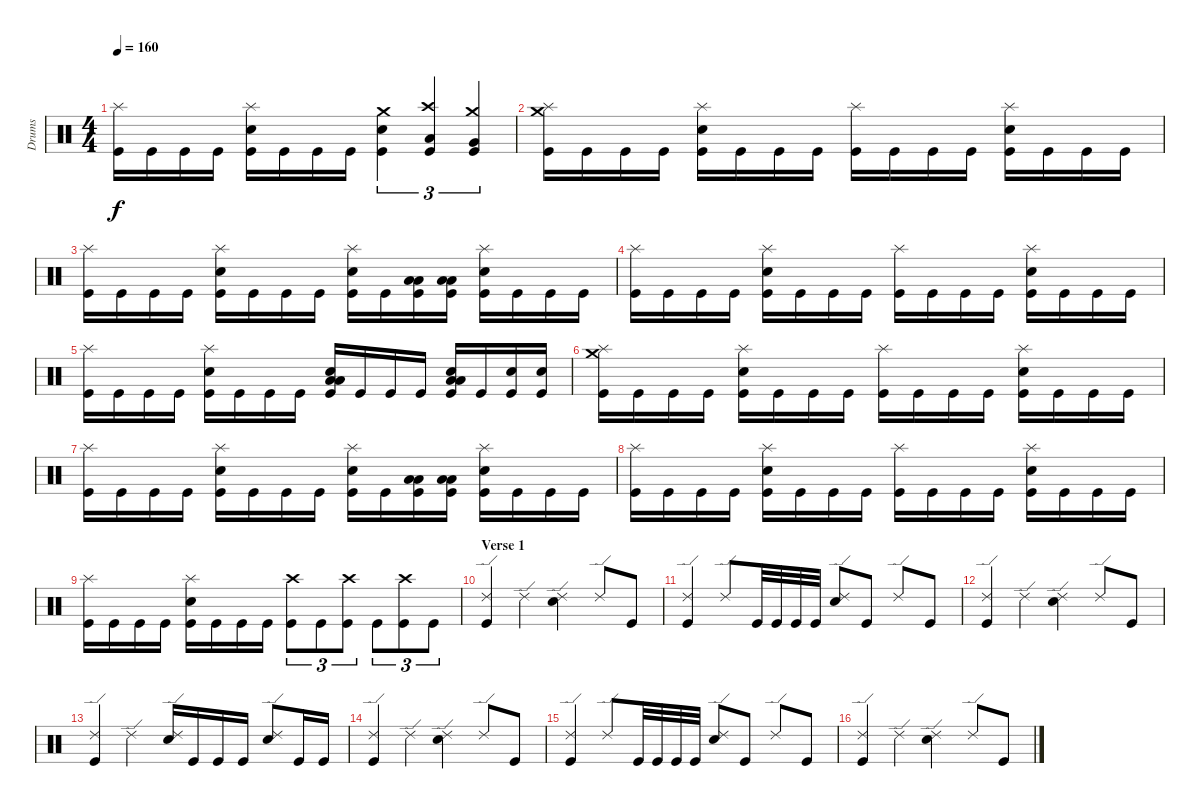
\track ("Drums" "Drums") {instrument percussion}
\staff {score}
\articulation defaults
\ts (4 4)
\tempo 160
\clef neutral
\ks c
("Splash (hit)" "Kick (hit)").16{dy f} "Kick (hit)".16 "Kick (hit)".16 "Kick (hit)".16 ("Splash (hit)" "Electric Snare (hit)" "Kick (hit)").16 "Kick (hit)".16 "Kick (hit)".16 "Kick (hit)".16 ("Crash medium (hit)" "Electric Snare (hit)" "Kick (hit)").4{tu (3 2)} ("Crash high (hit)" "Low Tom (hit)" "Kick (hit)").4{tu (3 2)} ("Crash medium (hit)" "Very Low Tom (hit)" "Kick (hit)").4{tu (3 2)} |
("Crash medium (hit)" "Splash (hit)" "Kick (hit)").16 "Kick (hit)".16 "Kick (hit)".16 "Kick (hit)".16 ("Splash (hit)" "Electric Snare (hit)" "Kick (hit)").16 "Kick (hit)".16 "Kick (hit)".16 "Kick (hit)".16 ("Splash (hit)" "Kick (hit)").16 "Kick (hit)".16 "Kick (hit)".16 "Kick (hit)".16 ("Splash (hit)" "Electric Snare (hit)" "Kick (hit)").16 "Kick (hit)".16 "Kick (hit)".16 "Kick (hit)".16 |
("Splash (hit)" "Kick (hit)").16 "Kick (hit)".16 "Kick (hit)".16 "Kick (hit)".16 ("Splash (hit)" "Electric Snare (hit)" "Kick (hit)").16 "Kick (hit)".16 "Kick (hit)".16 "Kick (hit)".16 ("Splash (hit)" "Electric Snare (hit)" "Kick (hit)").16 "Kick (hit)".16 ("Low Floor Tom (hit)" "Low Floor Tom (hit)" "Kick (hit)").16 ("Low Floor Tom (hit)" "Low Floor Tom (hit)" "Kick (hit)").16 ("Splash (hit)" "Electric Snare (hit)" "Kick (hit)").16 "Kick (hit)".16 "Kick (hit)".16 "Kick (hit)".16 |
("Splash (hit)" "Kick (hit)").16 "Kick (hit)".16 "Kick (hit)".16 "Kick (hit)".16 ("Splash (hit)" "Electric Snare (hit)" "Kick (hit)").16 "Kick (hit)".16 "Kick (hit)".16 "Kick (hit)".16 ("Splash (hit)" "Kick (hit)").16 "Kick (hit)".16 "Kick (hit)".16 "Kick (hit)".16 ("Splash (hit)" "Electric Snare (hit)" "Kick (hit)").16 "Kick (hit)".16 "Kick (hit)".16 "Kick (hit)".16 |
("Splash (hit)" "Kick (hit)").16 "Kick (hit)".16 "Kick (hit)".16 "Kick (hit)".16 ("Splash (hit)" "Electric Snare (hit)" "Kick (hit)").16 "Kick (hit)".16 "Kick (hit)".16 "Kick (hit)".16 ("Low Floor Tom (hit)" "Low Floor Tom (hit)" "Electric Snare (hit)" "Kick (hit)").16 "Kick (hit)".16 "Kick (hit)".16 "Kick (hit)".16 ("Low Floor Tom (hit)" "Low Floor Tom (hit)" "Electric Snare (hit)" "Kick (hit)").16 "Kick (hit)".16 ("Electric Snare (hit)" "Kick (hit)").16 ("Electric Snare (hit)" "Kick (hit)").16 |
("Crash medium (hit)" "Splash (hit)" "Kick (hit)").16 "Kick (hit)".16 "Kick (hit)".16 "Kick (hit)".16 ("Splash (hit)" "Electric Snare (hit)" "Kick (hit)").16 "Kick (hit)".16 "Kick (hit)".16 "Kick (hit)".16 ("Splash (hit)" "Kick (hit)").16 "Kick (hit)".16 "Kick (hit)".16 "Kick (hit)".16 ("Splash (hit)" "Electric Snare (hit)" "Kick (hit)").16 "Kick (hit)".16 "Kick (hit)".16 "Kick (hit)".16 |
("Splash (hit)" "Kick (hit)").16 "Kick (hit)".16 "Kick (hit)".16 "Kick (hit)".16 ("Splash (hit)" "Electric Snare (hit)" "Kick (hit)").16 "Kick (hit)".16 "Kick (hit)".16 "Kick (hit)".16 ("Splash (hit)" "Electric Snare (hit)" "Kick (hit)").16 "Kick (hit)".16 ("Low Floor Tom (hit)" "Low Floor Tom (hit)" "Kick (hit)").16 ("Low Floor Tom (hit)" "Low Floor Tom (hit)" "Kick (hit)").16 ("Splash (hit)" "Electric Snare (hit)" "Kick (hit)").16 "Kick (hit)".16 "Kick (hit)".16 "Kick (hit)".16 |
("Splash (hit)" "Kick (hit)").16 "Kick (hit)".16 "Kick (hit)".16 "Kick (hit)".16 ("Splash (hit)" "Electric Snare (hit)" "Kick (hit)").16 "Kick (hit)".16 "Kick (hit)".16 "Kick (hit)".16 ("Splash (hit)" "Kick (hit)").16 "Kick (hit)".16 "Kick (hit)".16 "Kick (hit)".16 ("Splash (hit)" "Electric Snare (hit)" "Kick (hit)").16 "Kick (hit)".16 "Kick (hit)".16 "Kick (hit)".16 |
("Splash (hit)" "Kick (hit)").16 "Kick (hit)".16 "Kick (hit)".16 "Kick (hit)".16 ("Splash (hit)" "Electric Snare (hit)" "Kick (hit)").16 "Kick (hit)".16 "Kick (hit)".16 "Kick (hit)".16 ("Crash high (hit)" "Kick (hit)").8{tu (3 2)} "Kick (hit)".8{tu (3 2)} ("Crash high (hit)" "Kick (hit)").8{tu (3 2)} "Kick (hit)".8{tu (3 2)} ("Crash high (hit)" "Kick (hit)").8{tu (3 2)} "Kick (hit)".8{tu (3 2)} |
\section ("" "Verse 1")
("Ride (edge) 2" "Kick (hit)").4 "Ride (edge) 2".4 ("Ride (edge) 2" "Electric Snare (hit)").4 "Ride (edge) 2".8 "Kick (hit)".8 |
("Ride (edge) 2" "Kick (hit)").4 "Ride (edge) 2".8 "Kick (hit)".32 "Kick (hit)".32 "Kick (hit)".32 "Kick (hit)".32 ("Ride (edge) 2" "Electric Snare (hit)").8 "Kick (hit)".8 "Ride (edge) 2".8 "Kick (hit)".8 |
("Ride (edge) 2" "Kick (hit)").4 "Ride (edge) 2".4 ("Ride (edge) 2" "Electric Snare (hit)").4 "Ride (edge) 2".8 "Kick (hit)".8 |
("Ride (edge) 2" "Kick (hit)").4 "Ride (edge) 2".4 ("Ride (edge) 2" "Electric Snare (hit)").16 "Kick (hit)".16 "Kick (hit)".16 "Kick (hit)".16 ("Ride (edge) 2" "Electric Snare (hit)").8 "Kick (hit)".16 "Kick (hit)".16 |
("Ride (edge) 2" "Kick (hit)").4 "Ride (edge) 2".4 ("Ride (edge) 2" "Electric Snare (hit)").4 "Ride (edge) 2".8 "Kick (hit)".8 |
("Ride (edge) 2" "Kick (hit)").4 "Ride (edge) 2".8 "Kick (hit)".32 "Kick (hit)".32 "Kick (hit)".32 "Kick (hit)".32 ("Ride (edge) 2" "Electric Snare (hit)").8 "Kick (hit)".8 "Ride (edge) 2".8 "Kick (hit)".8 |
("Ride (edge) 2" "Kick (hit)").4 "Ride (edge) 2".4 ("Ride (edge) 2" "Electric Snare (hit)").4 "Ride (edge) 2".8 "Kick (hit)".8
